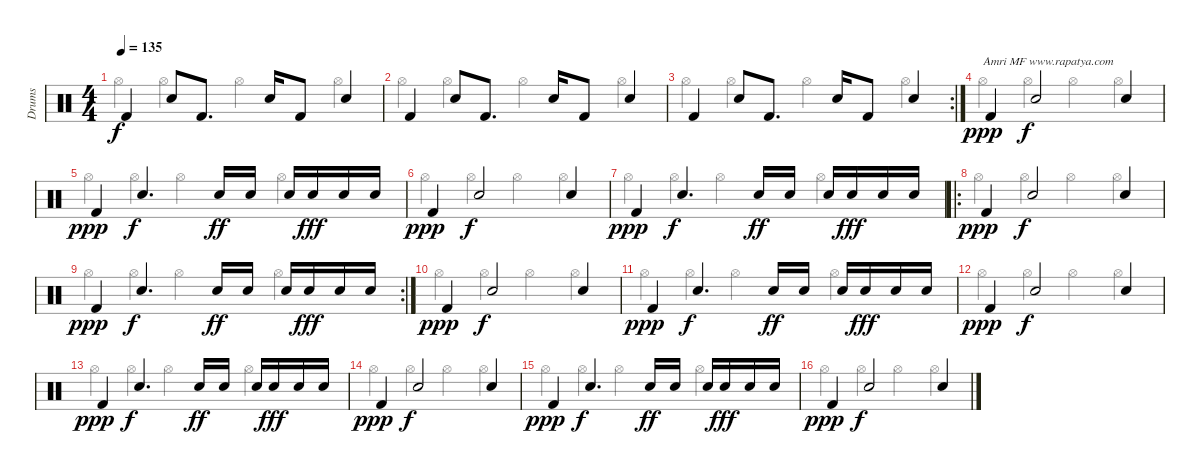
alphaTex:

\track ("Drums" "Drums") {instrument percussion}
\staff {score}
\articulation defaults
\voice
\ts (4 4)
\tempo 135
\clef neutral
\ks c "Kick (hit) 2".4{dy f} "Snare (hit) 2".8 "Kick (hit) 2".8{d} "Snare (hit) 2".16 "Kick (hit) 2".8 "Snare (hit) 2".4
|
"Kick (hit) 2".4 "Snare (hit) 2".8 "Kick (hit) 2".8{d} "Snare (hit) 2".16 "Kick (hit) 2".8 "Snare (hit) 2".4 |
\rc 2 "Kick (hit) 2".4 "Snare (hit) 2".8 "Kick (hit) 2".8{d} "Snare (hit) 2".16 "Kick (hit) 2".8 "Snare (hit) 2".4
|
"Kick (hit) 2".4{txt "Amri MF www.rapatya.com" dy ppp} "Snare (hit) 2".2{dy f} "Snare (hit) 2".4 |
"Kick (hit) 2".4{dy ppp} "Snare (hit) 2".4{d dy f} "Snare (hit) 2".16{dy ff} "Snare (hit) 2".16 "Snare (hit) 2".16 "Snare (hit) 2".16{dy fff} "Snare (hit) 2".16 "Snare (hit) 2".16 |
"Kick (hit) 2".4{dy ppp} "Snare (hit) 2".2{dy f} "Snare (hit) 2".4 |
"Kick (hit) 2".4{dy ppp} "Snare (hit) 2".4{d dy f} "Snare (hit) 2".16{dy ff} "Snare (hit) 2".16 "Snare (hit) 2".16 "Snare (hit) 2".16{dy fff} "Snare (hit) 2".16 "Snare (hit) 2".16 |
\ro "Kick (hit) 2".4{dy ppp} "Snare (hit) 2".2{dy f} "Snare (hit) 2".4
|
\rc 2 "Kick (hit) 2".4{dy ppp} "Snare (hit) 2".4{d dy f} "Snare (hit) 2".16{dy ff} "Snare (hit) 2".16 "Snare (hit) 2".16 "Snare (hit) 2".16{dy fff} "Snare (hit) 2".16 "Snare (hit) 2".16
|
"Kick (hit) 2".4{dy ppp} "Snare (hit) 2".2{dy f} "Snare (hit) 2".4 |
"Kick (hit) 2".4{dy ppp} "Snare (hit) 2".4{d dy f} "Snare (hit) 2".16{dy ff} "Snare (hit) 2".16 "Snare (hit) 2".16 "Snare (hit) 2".16{dy fff} "Snare (hit) 2".16 "Snare (hit) 2".16 |
"Kick (hit) 2".4{dy ppp} "Snare (hit) 2".2{dy f} "Snare (hit) 2".4 |
"Kick (hit) 2".4{dy ppp} "Snare (hit) 2".4{d dy f} "Snare (hit) 2".16{dy ff} "Snare (hit) 2".16 "Snare (hit) 2".16 "Snare (hit) 2".16{dy fff} "Snare (hit) 2".16 "Snare (hit) 2".16 |
"Kick (hit) 2".4{dy ppp} "Snare (hit) 2".2{dy f} "Snare (hit) 2".4 |
"Kick (hit) 2".4{dy ppp} "Snare (hit) 2".4{d dy f} "Snare (hit) 2".16{dy ff} "Snare (hit) 2".16 "Snare (hit) 2".16 "Snare (hit) 2".16{dy fff} "Snare (hit) 2".16 "Snare (hit) 2".16 |
"Kick (hit) 2".4{dy ppp} "Snare (hit) 2".2{dy f} "Snare (hit) 2".4
\voice
\clef neutral
\ottava regular
\simile none
\ks c "Hi-Hat (open)".4{dy f} "Hi-Hat (open)".4 "Hi-Hat (open)".4 "Hi-Hat (open)".4
|
"Hi-Hat (open)".4 "Hi-Hat (open)".4 "Hi-Hat (open)".4 "Hi-Hat (open)".4 |
"Hi-Hat (open)".4 "Hi-Hat (open)".4 "Hi-Hat (open)".4 "Hi-Hat (open)".4 |
"Hi-Hat (open)".4 "Hi-Hat (open)".4 "Hi-Hat (open)".4 "Hi-Hat (open)".4 |
"Hi-Hat (open)".4 "Hi-Hat (open)".4 "Hi-Hat (open)".4 "Hi-Hat (open)".4 |
"Hi-Hat (open)".4 "Hi-Hat (open)".4 "Hi-Hat (open)".4 "Hi-Hat (open)".4 |
"Hi-Hat (open)".4 "Hi-Hat (open)".4 "Hi-Hat (open)".4 "Hi-Hat (open)".4 |
"Hi-Hat (open)".4 "Hi-Hat (open)".4 "Hi-Hat (open)".4 "Hi-Hat (open)".4 |
"Hi-Hat (open)".4 "Hi-Hat (open)".4 "Hi-Hat (open)".4 "Hi-Hat (open)".4 |
"Hi-Hat (open)".4 "Hi-Hat (open)".4 "Hi-Hat (open)".4 "Hi-Hat (open)".4 |
"Hi-Hat (open)".4 "Hi-Hat (open)".4 "Hi-Hat (open)".4 "Hi-Hat (open)".4 |
"Hi-Hat (open)".4 "Hi-Hat (open)".4 "Hi-Hat (open)".4 "Hi-Hat (open)".4 |
"Hi-Hat (open)".4 "Hi-Hat (open)".4 "Hi-Hat (open)".4 "Hi-Hat (open)".4 |
"Hi-Hat (open)".4 "Hi-Hat (open)".4 "Hi-Hat (open)".4 "Hi-Hat (open)".4 |
"Hi-Hat (open)".4 "Hi-Hat (open)".4 "Hi-Hat (open)".4 "Hi-Hat (open)".4 |
"Hi-Hat (open)".4 "Hi-Hat (open)".4 "Hi-Hat (open)".4 "Hi-Hat (open)".4
